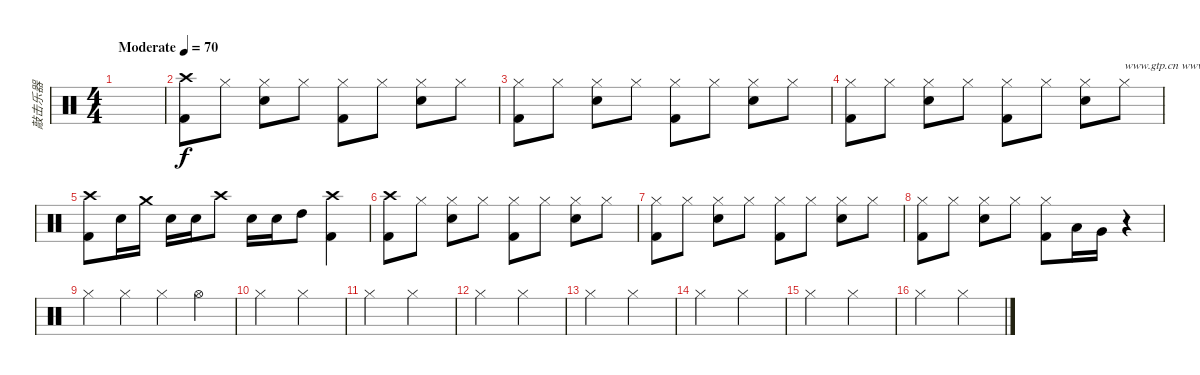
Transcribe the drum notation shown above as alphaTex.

\track ("敲击乐器" "敲击乐器") {instrument percussion}
\staff {score}
\articulation defaults
\ts (4 4)
\tempo (70 "Moderate")
\clef neutral
\ks c
|
("Crash high (hit)" "Kick (hit) 2").8 "Hi-Hat (closed)".8 ("Hi-Hat (closed)" "Electric Snare (hit)").8 "Hi-Hat (closed)".8 ("Hi-Hat (closed)" "Kick (hit) 2").8 "Hi-Hat (closed)".8 ("Hi-Hat (closed)" "Electric Snare (hit)").8 "Hi-Hat (closed)".8 |
("Hi-Hat (closed)" "Kick (hit) 2").8 "Hi-Hat (closed)".8 ("Hi-Hat (closed)" "Electric Snare (hit)").8 "Hi-Hat (closed)".8 ("Hi-Hat (closed)" "Kick (hit) 2").8 "Hi-Hat (closed)".8 ("Hi-Hat (closed)" "Electric Snare (hit)").8 "Hi-Hat (closed)".8 |
("Hi-Hat (closed)" "Kick (hit) 2").8 "Hi-Hat (closed)".8 ("Hi-Hat (closed)" "Electric Snare (hit)").8 "Hi-Hat (closed)".8 ("Hi-Hat (closed)" "Kick (hit) 2").8 "Hi-Hat (closed)".8 ("Hi-Hat (closed)" "Electric Snare (hit)").8 "Hi-Hat (closed)".8{txt "www.gtp.cn www.51gtp.com联合为您提供优秀的GTP!"} |
("Crash high (hit)" "Kick (hit) 2").8 "Electric Snare (hit)".16 "Crash medium (hit)".16 "Electric Snare (hit)".16 "Electric Snare (hit)".16 "Crash high (hit)".8 "Electric Snare (hit)".16 "Electric Snare (hit)".16 "High Tom (hit)".8 ("Crash high (hit)" "Kick (hit) 2").4 |
("Crash high (hit)" "Kick (hit) 2").8 "Hi-Hat (closed)".8 ("Hi-Hat (closed)" "Electric Snare (hit)").8 "Hi-Hat (closed)".8 ("Hi-Hat (closed)" "Kick (hit) 2").8 "Hi-Hat (closed)".8 ("Hi-Hat (closed)" "Electric Snare (hit)").8 "Hi-Hat (closed)".8 |
("Hi-Hat (closed)" "Kick (hit) 2").8 "Hi-Hat (closed)".8 ("Hi-Hat (closed)" "Electric Snare (hit)").8 "Hi-Hat (closed)".8 ("Hi-Hat (closed)" "Kick (hit) 2").8 "Hi-Hat (closed)".8 ("Hi-Hat (closed)" "Electric Snare (hit)").8 "Hi-Hat (closed)".8 |
("Hi-Hat (closed)" "Kick (hit) 2").8 "Hi-Hat (closed)".8 ("Hi-Hat (closed)" "Electric Snare (hit)").8 "Hi-Hat (closed)".8 ("Hi-Hat (closed)" "Kick (hit) 2").8 "Low Tom (hit)".16 "Very Low Tom (hit)".16 r.4 |
"Hi-Hat (closed)".4 "Hi-Hat (closed)".4 "Hi-Hat (closed)".4 "Hi-Hat (open)".4 |
"Hi-Hat (closed)".2 "Hi-Hat (closed)".2 |
"Hi-Hat (closed)".2 "Hi-Hat (closed)".2 |
"Hi-Hat (closed)".2 "Hi-Hat (closed)".2 |
"Hi-Hat (closed)".2 "Hi-Hat (closed)".2 |
"Hi-Hat (closed)".2 "Hi-Hat (closed)".2 |
"Hi-Hat (closed)".2 "Hi-Hat (closed)".2 |
"Hi-Hat (closed)".2 "Hi-Hat (closed)".2
